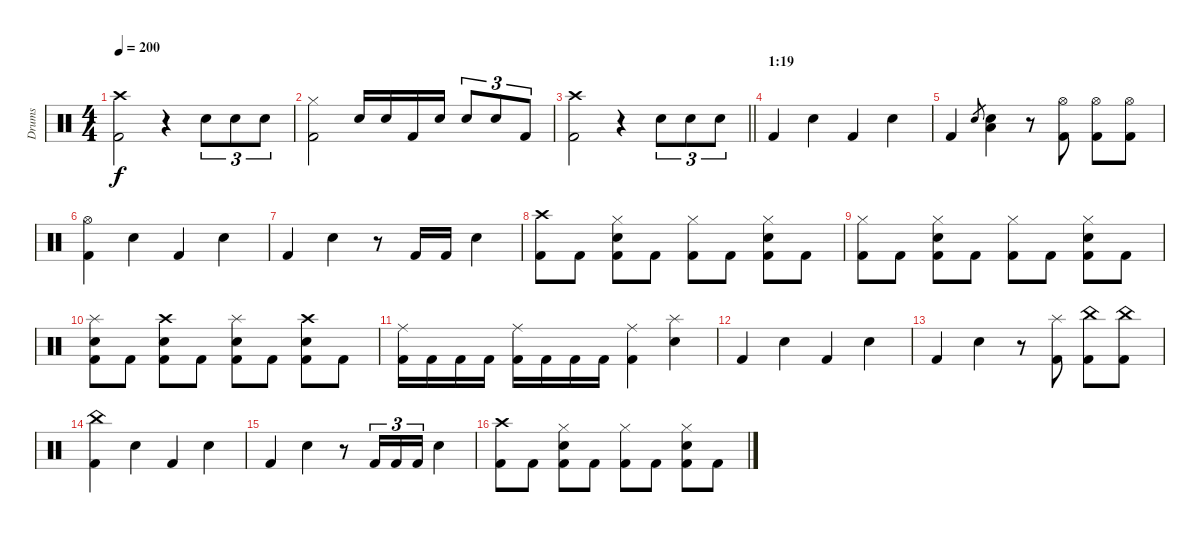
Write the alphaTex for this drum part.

\track ("Drums" "Drums") {instrument percussion}
\staff {score}
\articulation defaults
\ts (4 4)
\tempo 200
\clef neutral
\ks c
("Crash high (hit)" "Kick (hit) 2").2{dy f} r.4 "Snare (hit) 2".8{tu (3 2)} "Snare (hit) 2".8{tu (3 2)} "Snare (hit) 2".8{tu (3 2)} |
("Hi-Hat (closed)" "Kick (hit) 2").2 "Snare (hit) 2".16 "Snare (hit) 2".16 "Kick (hit) 2".16 "Snare (hit) 2".16 "Snare (hit) 2".8{tu (3 2)} "Snare (hit) 2".8{tu (3 2)} "Kick (hit) 2".8{tu (3 2)} |
\barLineRight lightlight
("Crash high (hit)" "Kick (hit) 2").2 r.4 "Snare (hit) 2".8{tu (3 2)} "Snare (hit) 2".8{tu (3 2)} "Snare (hit) 2".8{tu (3 2)} |
\section ("" "1:19")
"Kick (hit) 2".4 "Snare (hit) 2".4 "Kick (hit) 2".4 "Snare (hit) 2".4 |
"Kick (hit) 2".4 "Snare (hit) 2".8{gr} ("Snare (hit) 2" "Low Tom (hit)").4 r.8 ("Hi-Hat (open)" "Kick (hit) 2").8 ("Hi-Hat (open)" "Kick (hit) 2").8 ("Hi-Hat (open)" "Kick (hit) 2").8 |
("Hi-Hat (open)" "Kick (hit) 2").4 "Snare (hit) 2".4 "Kick (hit) 2".4 "Snare (hit) 2".4 |
"Kick (hit) 2".4 "Snare (hit) 2".4 r.8 "Kick (hit) 2".16 "Kick (hit) 2".16 "Snare (hit) 2".4 |
("Crash high (hit)" "Kick (hit) 2").8 "Kick (hit) 2".8 ("Hi-Hat (closed)" "Snare (hit) 2" "Kick (hit) 2").8 "Kick (hit) 2".8 ("Hi-Hat (closed)" "Kick (hit) 2").8 "Kick (hit) 2".8 ("Hi-Hat (closed)" "Snare (hit) 2" "Kick (hit) 2").8 "Kick (hit) 2".8 |
("Hi-Hat (closed)" "Kick (hit) 2").8 "Kick (hit) 2".8 ("Hi-Hat (closed)" "Snare (hit) 2" "Kick (hit) 2").8 "Kick (hit) 2".8 ("Hi-Hat (closed)" "Kick (hit) 2").8 "Kick (hit) 2".8 ("Hi-Hat (closed)" "Snare (hit) 2" "Kick (hit) 2").8 "Kick (hit) 2".8 |
("Splash (hit)" "Snare (hit) 2" "Kick (hit) 2").8 "Kick (hit) 2".8 ("Crash high (hit)" "Snare (hit) 2" "Kick (hit) 2").8 "Kick (hit) 2".8 ("Splash (hit)" "Snare (hit) 2" "Kick (hit) 2").8 "Kick (hit) 2".8 ("Crash high (hit)" "Snare (hit) 2" "Kick (hit) 2").8 "Kick (hit) 2".8 |
("Ride (middle)" "Kick (hit) 2").16 "Kick (hit) 2".16 "Kick (hit) 2".16 "Kick (hit) 2".16 ("Ride (middle)" "Kick (hit) 2").16 "Kick (hit) 2".16 "Kick (hit) 2".16 "Kick (hit) 2".16 ("Ride (middle)" "Kick (hit) 2").4 ("Splash (hit)" "Snare (hit) 2").4 |
"Kick (hit) 2".4 "Snare (hit) 2".4 "Kick (hit) 2".4 "Snare (hit) 2".4 |
"Kick (hit) 2".4 "Snare (hit) 2".4 r.8 ("Splash (hit)" "Kick (hit) 2").8 ("China (hit)" "Kick (hit) 2").8 ("China (hit)" "Kick (hit) 2").8 |
("China (hit)" "Kick (hit) 2").4 "Snare (hit) 2".4 "Kick (hit) 2".4 "Snare (hit) 2".4 |
"Kick (hit) 2".4 "Snare (hit) 2".4 r.8 "Kick (hit) 2".16{tu (3 2)} "Kick (hit) 2".16{tu (3 2)} "Kick (hit) 2".16{tu (3 2)} "Snare (hit) 2".4 |
("Crash high (hit)" "Kick (hit) 2").8 "Kick (hit) 2".8 ("Hi-Hat (closed)" "Snare (hit) 2" "Kick (hit) 2").8 "Kick (hit) 2".8 ("Hi-Hat (closed)" "Kick (hit) 2").8 "Kick (hit) 2".8 ("Hi-Hat (closed)" "Snare (hit) 2" "Kick (hit) 2").8 "Kick (hit) 2".8
